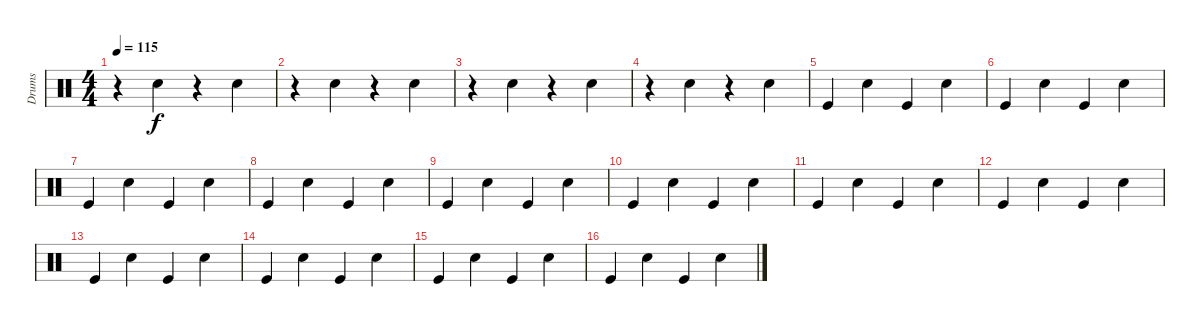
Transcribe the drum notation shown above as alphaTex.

\track ("Drums" "Drums") {instrument percussion}
\staff {score}
\articulation defaults
\ts (4 4)
\tempo 115
\clef neutral
\ks c
r.4{dy f} "Hand Clap (hit)".4 r.4 "Hand Clap (hit)".4 |
r.4 "Hand Clap (hit)".4 r.4 "Hand Clap (hit)".4 |
r.4 "Hand Clap (hit)".4 r.4 "Hand Clap (hit)".4 |
r.4 "Hand Clap (hit)".4 r.4 "Hand Clap (hit)".4 |
"Kick (hit)".4 "Hand Clap (hit)".4 "Kick (hit)".4 "Hand Clap (hit)".4 |
"Kick (hit)".4 "Hand Clap (hit)".4 "Kick (hit)".4 "Hand Clap (hit)".4 |
"Kick (hit)".4 "Hand Clap (hit)".4 "Kick (hit)".4 "Hand Clap (hit)".4 |
"Kick (hit)".4 "Hand Clap (hit)".4 "Kick (hit)".4 "Hand Clap (hit)".4 |
"Kick (hit)".4 "Hand Clap (hit)".4 "Kick (hit)".4 "Hand Clap (hit)".4 |
"Kick (hit)".4 "Hand Clap (hit)".4 "Kick (hit)".4 "Hand Clap (hit)".4 |
"Kick (hit)".4 "Hand Clap (hit)".4 "Kick (hit)".4 "Hand Clap (hit)".4 |
"Kick (hit)".4 "Hand Clap (hit)".4 "Kick (hit)".4 "Hand Clap (hit)".4 |
"Kick (hit)".4 "Hand Clap (hit)".4 "Kick (hit)".4 "Hand Clap (hit)".4 |
"Kick (hit)".4 "Hand Clap (hit)".4 "Kick (hit)".4 "Hand Clap (hit)".4 |
"Kick (hit)".4 "Hand Clap (hit)".4 "Kick (hit)".4 "Hand Clap (hit)".4 |
"Kick (hit)".4 "Hand Clap (hit)".4 "Kick (hit)".4 "Hand Clap (hit)".4
